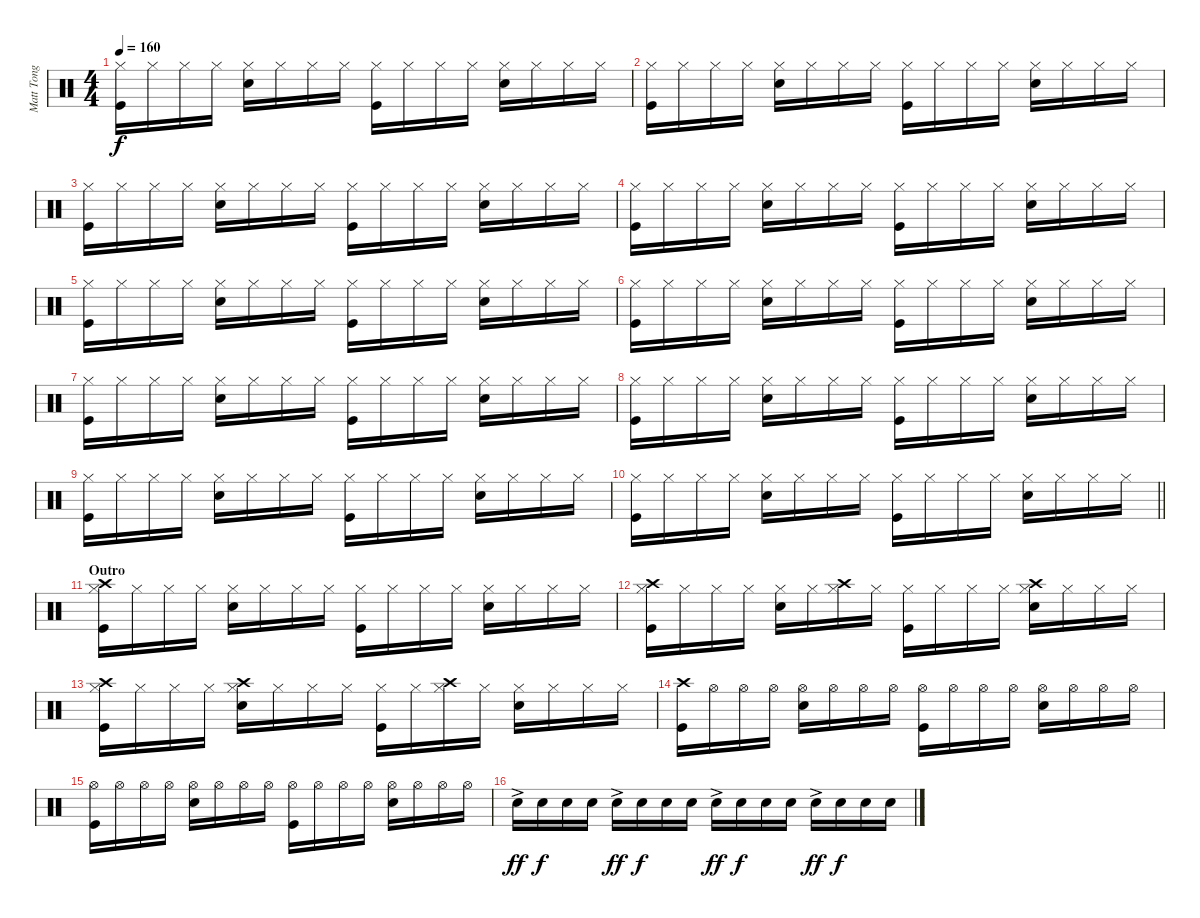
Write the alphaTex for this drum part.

\track ("Matt Tong" "Matt Tong") {instrument percussion}
\staff {score}
\articulation defaults
\ts (4 4)
\tempo 160
\clef neutral
\ks c
("Hi-Hat (closed)" "Kick (hit)").16{dy f} "Hi-Hat (closed)".16 "Hi-Hat (closed)".16 "Hi-Hat (closed)".16 ("Hi-Hat (closed)" "Electric Snare (hit)").16 "Hi-Hat (closed)".16 "Hi-Hat (closed)".16 "Hi-Hat (closed)".16 ("Hi-Hat (closed)" "Kick (hit)").16 "Hi-Hat (closed)".16 "Hi-Hat (closed)".16 "Hi-Hat (closed)".16 ("Hi-Hat (closed)" "Electric Snare (hit)").16 "Hi-Hat (closed)".16 "Hi-Hat (closed)".16 "Hi-Hat (closed)".16 |
("Hi-Hat (closed)" "Kick (hit)").16 "Hi-Hat (closed)".16 "Hi-Hat (closed)".16 "Hi-Hat (closed)".16 ("Hi-Hat (closed)" "Electric Snare (hit)").16 "Hi-Hat (closed)".16 "Hi-Hat (closed)".16 "Hi-Hat (closed)".16 ("Hi-Hat (closed)" "Kick (hit)").16 "Hi-Hat (closed)".16 "Hi-Hat (closed)".16 "Hi-Hat (closed)".16 ("Hi-Hat (closed)" "Electric Snare (hit)").16 "Hi-Hat (closed)".16 "Hi-Hat (closed)".16 "Hi-Hat (closed)".16 |
("Hi-Hat (closed)" "Kick (hit)").16 "Hi-Hat (closed)".16 "Hi-Hat (closed)".16 "Hi-Hat (closed)".16 ("Hi-Hat (closed)" "Electric Snare (hit)").16 "Hi-Hat (closed)".16 "Hi-Hat (closed)".16 "Hi-Hat (closed)".16 ("Hi-Hat (closed)" "Kick (hit)").16 "Hi-Hat (closed)".16 "Hi-Hat (closed)".16 "Hi-Hat (closed)".16 ("Hi-Hat (closed)" "Electric Snare (hit)").16 "Hi-Hat (closed)".16 "Hi-Hat (closed)".16 "Hi-Hat (closed)".16 |
("Hi-Hat (closed)" "Kick (hit)").16 "Hi-Hat (closed)".16 "Hi-Hat (closed)".16 "Hi-Hat (closed)".16 ("Hi-Hat (closed)" "Electric Snare (hit)").16 "Hi-Hat (closed)".16 "Hi-Hat (closed)".16 "Hi-Hat (closed)".16 ("Hi-Hat (closed)" "Kick (hit)").16 "Hi-Hat (closed)".16 "Hi-Hat (closed)".16 "Hi-Hat (closed)".16 ("Hi-Hat (closed)" "Electric Snare (hit)").16 "Hi-Hat (closed)".16 "Hi-Hat (closed)".16 "Hi-Hat (closed)".16 |
("Hi-Hat (closed)" "Kick (hit)").16 "Hi-Hat (closed)".16 "Hi-Hat (closed)".16 "Hi-Hat (closed)".16 ("Hi-Hat (closed)" "Electric Snare (hit)").16 "Hi-Hat (closed)".16 "Hi-Hat (closed)".16 "Hi-Hat (closed)".16 ("Hi-Hat (closed)" "Kick (hit)").16 "Hi-Hat (closed)".16 "Hi-Hat (closed)".16 "Hi-Hat (closed)".16 ("Hi-Hat (closed)" "Electric Snare (hit)").16 "Hi-Hat (closed)".16 "Hi-Hat (closed)".16 "Hi-Hat (closed)".16 |
("Hi-Hat (closed)" "Kick (hit)").16 "Hi-Hat (closed)".16 "Hi-Hat (closed)".16 "Hi-Hat (closed)".16 ("Hi-Hat (closed)" "Electric Snare (hit)").16 "Hi-Hat (closed)".16 "Hi-Hat (closed)".16 "Hi-Hat (closed)".16 ("Hi-Hat (closed)" "Kick (hit)").16 "Hi-Hat (closed)".16 "Hi-Hat (closed)".16 "Hi-Hat (closed)".16 ("Hi-Hat (closed)" "Electric Snare (hit)").16 "Hi-Hat (closed)".16 "Hi-Hat (closed)".16 "Hi-Hat (closed)".16 |
("Hi-Hat (closed)" "Kick (hit)").16 "Hi-Hat (closed)".16 "Hi-Hat (closed)".16 "Hi-Hat (closed)".16 ("Hi-Hat (closed)" "Electric Snare (hit)").16 "Hi-Hat (closed)".16 "Hi-Hat (closed)".16 "Hi-Hat (closed)".16 ("Hi-Hat (closed)" "Kick (hit)").16 "Hi-Hat (closed)".16 "Hi-Hat (closed)".16 "Hi-Hat (closed)".16 ("Hi-Hat (closed)" "Electric Snare (hit)").16 "Hi-Hat (closed)".16 "Hi-Hat (closed)".16 "Hi-Hat (closed)".16 |
("Hi-Hat (closed)" "Kick (hit)").16 "Hi-Hat (closed)".16 "Hi-Hat (closed)".16 "Hi-Hat (closed)".16 ("Hi-Hat (closed)" "Electric Snare (hit)").16 "Hi-Hat (closed)".16 "Hi-Hat (closed)".16 "Hi-Hat (closed)".16 ("Hi-Hat (closed)" "Kick (hit)").16 "Hi-Hat (closed)".16 "Hi-Hat (closed)".16 "Hi-Hat (closed)".16 ("Hi-Hat (closed)" "Electric Snare (hit)").16 "Hi-Hat (closed)".16 "Hi-Hat (closed)".16 "Hi-Hat (closed)".16 |
("Hi-Hat (closed)" "Kick (hit)").16 "Hi-Hat (closed)".16 "Hi-Hat (closed)".16 "Hi-Hat (closed)".16 ("Hi-Hat (closed)" "Electric Snare (hit)").16 "Hi-Hat (closed)".16 "Hi-Hat (closed)".16 "Hi-Hat (closed)".16 ("Hi-Hat (closed)" "Kick (hit)").16 "Hi-Hat (closed)".16 "Hi-Hat (closed)".16 "Hi-Hat (closed)".16 ("Hi-Hat (closed)" "Electric Snare (hit)").16 "Hi-Hat (closed)".16 "Hi-Hat (closed)".16 "Hi-Hat (closed)".16 |
\barLineRight lightlight
("Hi-Hat (closed)" "Kick (hit)").16 "Hi-Hat (closed)".16 "Hi-Hat (closed)".16 "Hi-Hat (closed)".16 ("Hi-Hat (closed)" "Electric Snare (hit)").16 "Hi-Hat (closed)".16 "Hi-Hat (closed)".16 "Hi-Hat (closed)".16 ("Hi-Hat (closed)" "Kick (hit)").16 "Hi-Hat (closed)".16 "Hi-Hat (closed)".16 "Hi-Hat (closed)".16 ("Hi-Hat (closed)" "Electric Snare (hit)").16 "Hi-Hat (closed)".16 "Hi-Hat (closed)".16 "Hi-Hat (closed)".16 |
\section ("" "Outro")
("Crash high (hit)" "Hi-Hat (closed)" "Kick (hit)").16 "Hi-Hat (closed)".16 "Hi-Hat (closed)".16 "Hi-Hat (closed)".16 ("Hi-Hat (closed)" "Electric Snare (hit)").16 "Hi-Hat (closed)".16 "Hi-Hat (closed)".16 "Hi-Hat (closed)".16 ("Hi-Hat (closed)" "Kick (hit)").16 "Hi-Hat (closed)".16 "Hi-Hat (closed)".16 "Hi-Hat (closed)".16 ("Hi-Hat (closed)" "Electric Snare (hit)").16 "Hi-Hat (closed)".16 "Hi-Hat (closed)".16 "Hi-Hat (closed)".16 |
("Crash high (hit)" "Hi-Hat (closed)" "Kick (hit)").16 "Hi-Hat (closed)".16 "Hi-Hat (closed)".16 "Hi-Hat (closed)".16 ("Hi-Hat (closed)" "Electric Snare (hit)").16 "Hi-Hat (closed)".16 ("Crash high (hit)" "Hi-Hat (closed)").16 "Hi-Hat (closed)".16 ("Hi-Hat (closed)" "Kick (hit)").16 "Hi-Hat (closed)".16 "Hi-Hat (closed)".16 "Hi-Hat (closed)".16 ("Crash high (hit)" "Hi-Hat (closed)" "Electric Snare (hit)").16 "Hi-Hat (closed)".16 "Hi-Hat (closed)".16 "Hi-Hat (closed)".16 |
("Crash high (hit)" "Hi-Hat (closed)" "Kick (hit)").16 "Hi-Hat (closed)".16 "Hi-Hat (closed)".16 "Hi-Hat (closed)".16 ("Crash high (hit)" "Hi-Hat (closed)" "Electric Snare (hit)").16 "Hi-Hat (closed)".16 "Hi-Hat (closed)".16 "Hi-Hat (closed)".16 ("Hi-Hat (closed)" "Kick (hit)").16 "Hi-Hat (closed)".16 ("Crash high (hit)" "Hi-Hat (closed)").16 "Hi-Hat (closed)".16 ("Hi-Hat (closed)" "Electric Snare (hit)").16 "Hi-Hat (closed)".16 "Hi-Hat (closed)".16 "Hi-Hat (closed)".16 |
("Crash high (hit)" "Kick (hit)").16 "Hi-Hat (open)".16 "Hi-Hat (open)".16 "Hi-Hat (open)".16 ("Hi-Hat (open)" "Electric Snare (hit)").16 "Hi-Hat (open)".16 "Hi-Hat (open)".16 "Hi-Hat (open)".16 ("Hi-Hat (open)" "Kick (hit)").16 "Hi-Hat (open)".16 "Hi-Hat (open)".16 "Hi-Hat (open)".16 ("Hi-Hat (open)" "Electric Snare (hit)").16 "Hi-Hat (open)".16 "Hi-Hat (open)".16 "Hi-Hat (open)".16 |
("Hi-Hat (open)" "Kick (hit)").16 "Hi-Hat (open)".16 "Hi-Hat (open)".16 "Hi-Hat (open)".16 ("Hi-Hat (open)" "Electric Snare (hit)").16 "Hi-Hat (open)".16 "Hi-Hat (open)".16 "Hi-Hat (open)".16 ("Hi-Hat (open)" "Kick (hit)").16 "Hi-Hat (open)".16 "Hi-Hat (open)".16 "Hi-Hat (open)".16 ("Hi-Hat (open)" "Electric Snare (hit)").16 "Hi-Hat (open)".16 "Hi-Hat (open)".16 "Hi-Hat (open)".16 |
"Electric Snare (hit)"{ac}.16{dy ff} "Electric Snare (hit)".16{dy f} "Electric Snare (hit)".16 "Electric Snare (hit)".16 "Electric Snare (hit)"{ac}.16{dy ff} "Electric Snare (hit)".16{dy f} "Electric Snare (hit)".16 "Electric Snare (hit)".16 "Electric Snare (hit)"{ac}.16{dy ff} "Electric Snare (hit)".16{dy f} "Electric Snare (hit)".16 "Electric Snare (hit)".16 "Electric Snare (hit)"{ac}.16{dy ff} "Electric Snare (hit)".16{dy f} "Electric Snare (hit)".16 "Electric Snare (hit)".16
